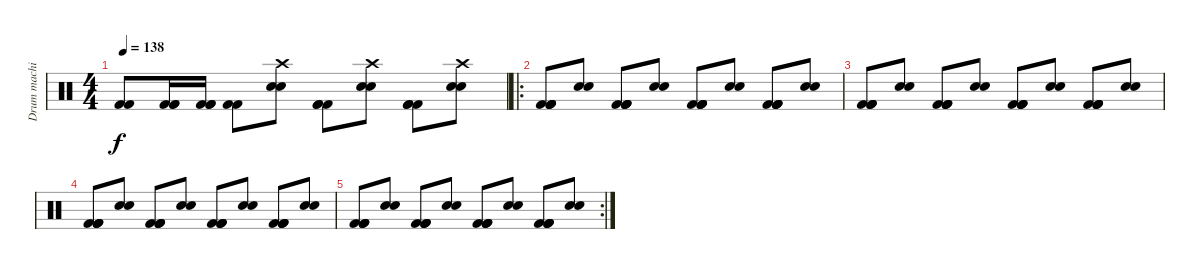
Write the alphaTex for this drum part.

\track ("Drum machine" "Drum machi") {instrument percussion}
\staff {score}
\articulation defaults
\ts (4 4)
\tempo 138
\clef neutral
\ks c
("Kick (hit) 2" "Kick (hit) 2").8{dy f} ("Kick (hit) 2" "Kick (hit) 2" "Kick (hit) 2").16 ("Kick (hit) 2" "Kick (hit) 2" "Kick (hit) 2").16 ("Kick (hit) 2" "Kick (hit) 2").8 ("Electric Snare (hit)" "Electric Snare (hit)" "Crash high (hit)").8 ("Kick (hit) 2" "Kick (hit) 2" "Kick (hit) 2").8 ("Electric Snare (hit)" "Electric Snare (hit)" "Crash high (hit)").8 ("Kick (hit) 2" "Kick (hit) 2" "Kick (hit) 2").8 ("Electric Snare (hit)" "Electric Snare (hit)" "Crash high (hit)").8 |
\ro
("Kick (hit) 2" "Kick (hit) 2" "Kick (hit) 2" "Kick (hit) 2").8 ("Electric Snare (hit)" "Electric Snare (hit)").8 ("Kick (hit) 2" "Kick (hit) 2" "Kick (hit) 2" "Kick (hit) 2").8 ("Electric Snare (hit)" "Electric Snare (hit)").8 ("Kick (hit) 2" "Kick (hit) 2" "Kick (hit) 2" "Kick (hit) 2").8 ("Electric Snare (hit)" "Electric Snare (hit)").8 ("Kick (hit) 2" "Kick (hit) 2" "Kick (hit) 2" "Kick (hit) 2").8 ("Electric Snare (hit)" "Electric Snare (hit)").8 |
("Kick (hit) 2" "Kick (hit) 2" "Kick (hit) 2" "Kick (hit) 2").8 ("Electric Snare (hit)" "Electric Snare (hit)").8 ("Kick (hit) 2" "Kick (hit) 2" "Kick (hit) 2" "Kick (hit) 2").8 ("Electric Snare (hit)" "Electric Snare (hit)").8 ("Kick (hit) 2" "Kick (hit) 2" "Kick (hit) 2" "Kick (hit) 2").8 ("Electric Snare (hit)" "Electric Snare (hit)").8 ("Kick (hit) 2" "Kick (hit) 2" "Kick (hit) 2" "Kick (hit) 2").8 ("Electric Snare (hit)" "Electric Snare (hit)").8 |
("Kick (hit) 2" "Kick (hit) 2" "Kick (hit) 2" "Kick (hit) 2").8 ("Electric Snare (hit)" "Electric Snare (hit)").8 ("Kick (hit) 2" "Kick (hit) 2" "Kick (hit) 2" "Kick (hit) 2").8 ("Electric Snare (hit)" "Electric Snare (hit)").8 ("Kick (hit) 2" "Kick (hit) 2" "Kick (hit) 2" "Kick (hit) 2").8 ("Electric Snare (hit)" "Electric Snare (hit)").8 ("Kick (hit) 2" "Kick (hit) 2" "Kick (hit) 2" "Kick (hit) 2").8 ("Electric Snare (hit)" "Electric Snare (hit)").8 |
\rc 2
("Kick (hit) 2" "Kick (hit) 2" "Kick (hit) 2" "Kick (hit) 2").8 ("Electric Snare (hit)" "Electric Snare (hit)").8 ("Kick (hit) 2" "Kick (hit) 2" "Kick (hit) 2" "Kick (hit) 2").8 ("Electric Snare (hit)" "Electric Snare (hit)").8 ("Kick (hit) 2" "Kick (hit) 2" "Kick (hit) 2" "Kick (hit) 2").8 ("Electric Snare (hit)" "Electric Snare (hit)").8 ("Kick (hit) 2" "Kick (hit) 2" "Kick (hit) 2" "Kick (hit) 2").8 ("Electric Snare (hit)" "Electric Snare (hit)").8
